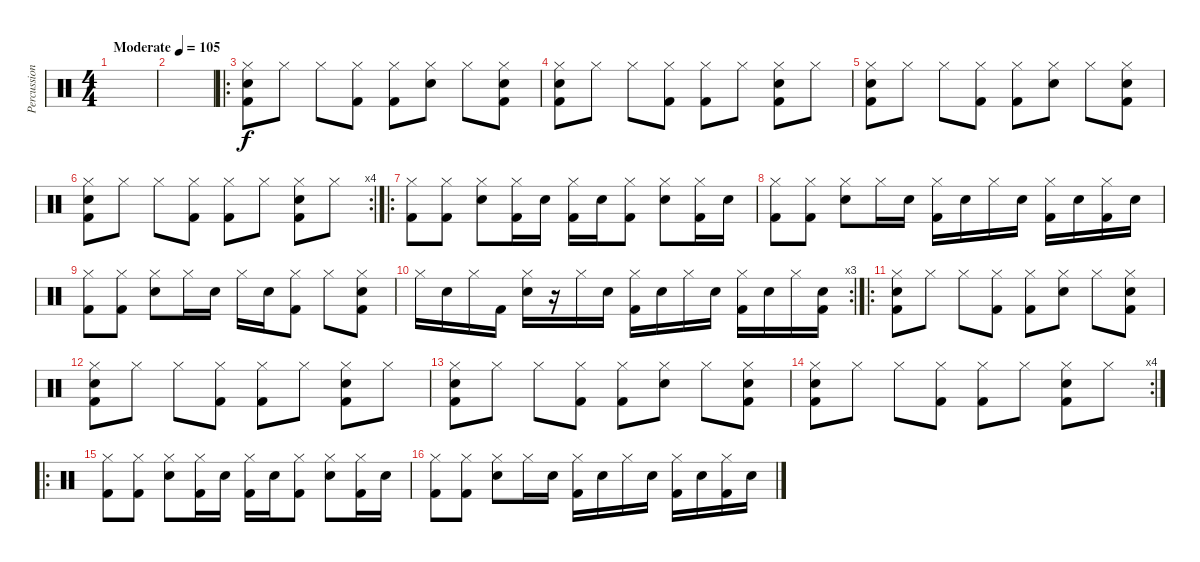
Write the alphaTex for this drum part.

\track ("Percussion" "Percussion") {instrument percussion}
\staff {score}
\articulation defaults
\ts (4 4)
\tempo (105 "Moderate")
\clef neutral
\ks c
|
|
\ro
("Hi-Hat (closed)" "Snare (hit) 2" "Kick (hit) 2").8 "Hi-Hat (closed)".8 "Hi-Hat (closed)".8 ("Hi-Hat (closed)" "Kick (hit) 2").8 ("Hi-Hat (closed)" "Kick (hit) 2").8 ("Hi-Hat (closed)" "Snare (hit) 2").8 "Hi-Hat (closed)".8 ("Hi-Hat (closed)" "Snare (hit) 2" "Kick (hit) 2").8 |
("Hi-Hat (closed)" "Snare (hit) 2" "Kick (hit) 2").8 "Hi-Hat (closed)".8 "Hi-Hat (closed)".8 ("Hi-Hat (closed)" "Kick (hit) 2").8 ("Hi-Hat (closed)" "Kick (hit) 2").8 "Hi-Hat (closed)".8 ("Hi-Hat (closed)" "Snare (hit) 2" "Kick (hit) 2").8 "Hi-Hat (closed)".8 |
("Hi-Hat (closed)" "Snare (hit) 2" "Kick (hit) 2").8 "Hi-Hat (closed)".8 "Hi-Hat (closed)".8 ("Hi-Hat (closed)" "Kick (hit) 2").8 ("Hi-Hat (closed)" "Kick (hit) 2").8 ("Hi-Hat (closed)" "Snare (hit) 2").8 "Hi-Hat (closed)".8 ("Hi-Hat (closed)" "Snare (hit) 2" "Kick (hit) 2").8 |
\rc 4
("Hi-Hat (closed)" "Snare (hit) 2" "Kick (hit) 2").8 "Hi-Hat (closed)".8 "Hi-Hat (closed)".8 ("Hi-Hat (closed)" "Kick (hit) 2").8 ("Hi-Hat (closed)" "Kick (hit) 2").8 "Hi-Hat (closed)".8 ("Hi-Hat (closed)" "Snare (hit) 2" "Kick (hit) 2").8 "Hi-Hat (closed)".8 |
\ro
("Hi-Hat (closed)" "Kick (hit) 2").8 ("Hi-Hat (closed)" "Kick (hit) 2").8 ("Hi-Hat (closed)" "Snare (hit) 2").8 ("Hi-Hat (closed)" "Kick (hit) 2").16 "Snare (hit) 2".16 ("Hi-Hat (closed)" "Kick (hit) 2").16 "Snare (hit) 2".16 ("Hi-Hat (closed)" "Kick (hit) 2").8 ("Hi-Hat (closed)" "Snare (hit) 2").8 ("Hi-Hat (closed)" "Kick (hit) 2").16 "Snare (hit) 2".16 |
("Hi-Hat (closed)" "Kick (hit) 2").8 ("Hi-Hat (closed)" "Kick (hit) 2").8 ("Hi-Hat (closed)" "Snare (hit) 2").8 "Hi-Hat (closed)".16 "Snare (hit) 2".16 ("Hi-Hat (closed)" "Kick (hit) 2").16 "Snare (hit) 2".16 "Hi-Hat (closed)".16 "Snare (hit) 2".16 ("Hi-Hat (closed)" "Kick (hit) 2").16 "Snare (hit) 2".16 ("Hi-Hat (closed)" "Kick (hit) 2").16 "Snare (hit) 2".16 |
("Hi-Hat (closed)" "Kick (hit) 2").8 ("Hi-Hat (closed)" "Kick (hit) 2").8 ("Hi-Hat (closed)" "Snare (hit) 2").8 "Hi-Hat (closed)".16 "Snare (hit) 2".16 "Hi-Hat (closed)".16 "Snare (hit) 2".16 ("Hi-Hat (closed)" "Kick (hit) 2").8 "Hi-Hat (closed)".8 ("Hi-Hat (closed)" "Snare (hit) 2" "Kick (hit) 2").8 |
\rc 3 "Hi-Hat (closed)".16 "Snare (hit) 2".16 "Hi-Hat (closed)".16 "Kick (hit) 2".16
("Hi-Hat (closed)" "Snare (hit) 2").16 r.16 "Hi-Hat (closed)".16 "Snare (hit) 2".16 ("Hi-Hat (closed)" "Kick (hit) 2").16 "Snare (hit) 2".16 "Hi-Hat (closed)".16 "Snare (hit) 2".16 ("Hi-Hat (closed)" "Kick (hit) 2").16 "Snare (hit) 2".16 "Hi-Hat (closed)".16 ("Snare (hit) 2" "Kick (hit) 2").16 |
\ro
("Hi-Hat (closed)" "Snare (hit) 2" "Kick (hit) 2").8 "Hi-Hat (closed)".8 "Hi-Hat (closed)".8 ("Hi-Hat (closed)" "Kick (hit) 2").8 ("Hi-Hat (closed)" "Kick (hit) 2").8 ("Hi-Hat (closed)" "Snare (hit) 2").8 "Hi-Hat (closed)".8 ("Hi-Hat (closed)" "Snare (hit) 2" "Kick (hit) 2").8 |
("Hi-Hat (closed)" "Snare (hit) 2" "Kick (hit) 2").8 "Hi-Hat (closed)".8 "Hi-Hat (closed)".8 ("Hi-Hat (closed)" "Kick (hit) 2").8 ("Hi-Hat (closed)" "Kick (hit) 2").8 "Hi-Hat (closed)".8 ("Hi-Hat (closed)" "Snare (hit) 2" "Kick (hit) 2").8 "Hi-Hat (closed)".8 |
("Hi-Hat (closed)" "Snare (hit) 2" "Kick (hit) 2").8 "Hi-Hat (closed)".8 "Hi-Hat (closed)".8 ("Hi-Hat (closed)" "Kick (hit) 2").8 ("Hi-Hat (closed)" "Kick (hit) 2").8 ("Hi-Hat (closed)" "Snare (hit) 2").8 "Hi-Hat (closed)".8 ("Hi-Hat (closed)" "Snare (hit) 2" "Kick (hit) 2").8 |
\rc 4
("Hi-Hat (closed)" "Snare (hit) 2" "Kick (hit) 2").8 "Hi-Hat (closed)".8 "Hi-Hat (closed)".8 ("Hi-Hat (closed)" "Kick (hit) 2").8 ("Hi-Hat (closed)" "Kick (hit) 2").8 "Hi-Hat (closed)".8 ("Hi-Hat (closed)" "Snare (hit) 2" "Kick (hit) 2").8 "Hi-Hat (closed)".8 |
\ro
("Hi-Hat (closed)" "Kick (hit) 2").8 ("Hi-Hat (closed)" "Kick (hit) 2").8 ("Hi-Hat (closed)" "Snare (hit) 2").8 ("Hi-Hat (closed)" "Kick (hit) 2").16 "Snare (hit) 2".16 ("Hi-Hat (closed)" "Kick (hit) 2").16 "Snare (hit) 2".16 ("Hi-Hat (closed)" "Kick (hit) 2").8 ("Hi-Hat (closed)" "Snare (hit) 2").8 ("Hi-Hat (closed)" "Kick (hit) 2").16 "Snare (hit) 2".16 |
("Hi-Hat (closed)" "Kick (hit) 2").8 ("Hi-Hat (closed)" "Kick (hit) 2").8 ("Hi-Hat (closed)" "Snare (hit) 2").8 "Hi-Hat (closed)".16 "Snare (hit) 2".16 ("Hi-Hat (closed)" "Kick (hit) 2").16 "Snare (hit) 2".16 "Hi-Hat (closed)".16 "Snare (hit) 2".16 ("Hi-Hat (closed)" "Kick (hit) 2").16 "Snare (hit) 2".16 ("Hi-Hat (closed)" "Kick (hit) 2").16 "Snare (hit) 2".16
